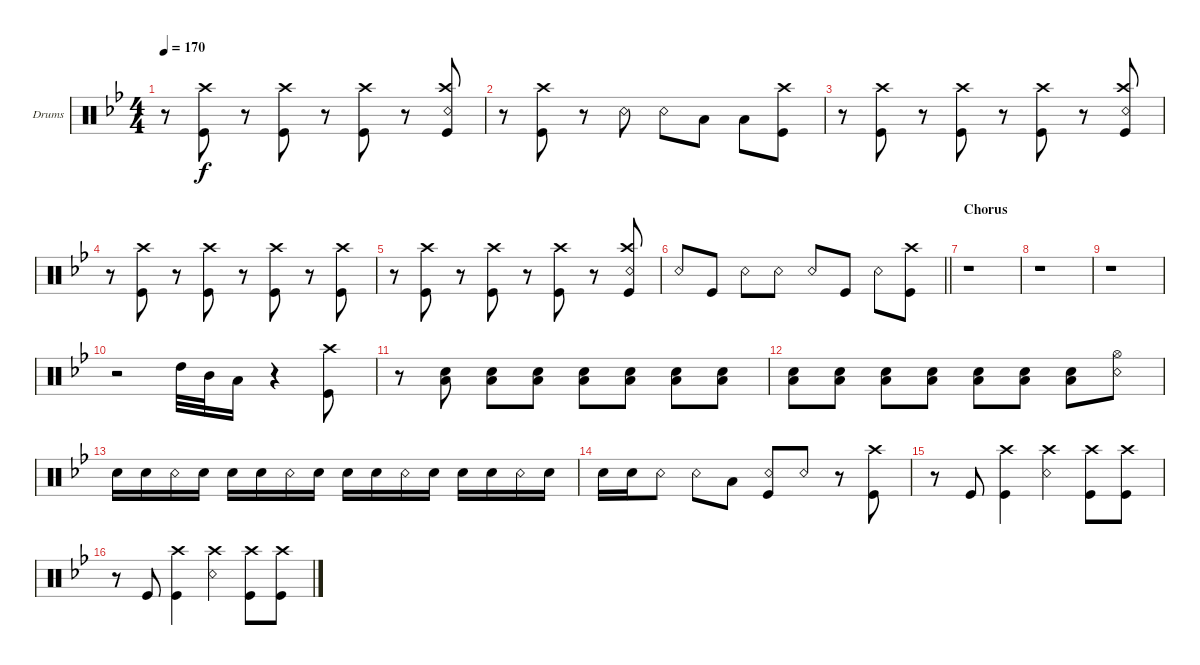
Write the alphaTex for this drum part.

\defaultSystemsLayout 4
\bracketExtendMode groupsimilarinstruments
\firstSystemTrackNameOrientation horizontal
\otherSystemsTrackNameOrientation horizontal
\track ("Drums" "Drums") {instrument percussion}
\staff {score}
\articulation defaults
\ts (4 4)
\tempo 170
\clef neutral
\ks bb
r.8{dy f} ("Kick (hit)" "Crash high (hit)").8 r.8 ("Kick (hit)" "Crash high (hit)").8 r.8 ("Kick (hit)" "Crash high (hit)").8 r.8 ("Kick (hit)" "Crash high (hit)" "Snare (rim shot)").8 |
r.8 ("Kick (hit)" "Crash high (hit)").8 r.8 "Snare (rim shot)".8 "Snare (rim shot)".8 "Low Tom (hit)".8 "Low Tom (hit)".8 ("Kick (hit)" "Crash high (hit)").8 |
r.8 ("Kick (hit)" "Crash high (hit)").8 r.8 ("Kick (hit)" "Crash high (hit)").8 r.8 ("Kick (hit)" "Crash high (hit)").8 r.8 ("Kick (hit)" "Crash high (hit)" "Snare (rim shot)").8 |
r.8 ("Kick (hit)" "Crash high (hit)").8 r.8 ("Kick (hit)" "Crash high (hit)").8 r.8 ("Kick (hit)" "Crash high (hit)").8 r.8 ("Kick (hit)" "Crash high (hit)").8 |
r.8 ("Kick (hit)" "Crash high (hit)").8 r.8 ("Kick (hit)" "Crash high (hit)").8 r.8 ("Kick (hit)" "Crash high (hit)").8 r.8 ("Kick (hit)" "Crash high (hit)" "Snare (rim shot)").8 |
\barLineRight lightlight "Snare (rim shot)".8 "Kick (hit)".8 "Snare (rim shot)".8 "Snare (rim shot)".8 "Snare (rim shot)".8 "Kick (hit)".8 "Snare (rim shot)".8
("Kick (hit)" "Crash high (hit)").8 |
\section ("" "Chorus")
r.1 |
r.1 |
r.1 |
r.2 "High Tom (hit)".32 "Mid Tom (hit)".32 "Low Tom (hit)".16 r.4 ("Kick (hit)" "Crash high (hit)").8 |
r.8 ("Low Tom (hit)" "Snare (hit) 2").8 ("Low Tom (hit)" "Snare (hit) 2").8 ("Low Tom (hit)" "Snare (hit) 2").8 ("Low Tom (hit)" "Snare (hit) 2").8 ("Low Tom (hit)" "Snare (hit) 2").8 ("Low Tom (hit)" "Snare (hit) 2").8 ("Low Tom (hit)" "Snare (hit) 2").8 |
("Low Tom (hit)" "Snare (hit) 2").8 ("Low Tom (hit)" "Snare (hit) 2").8 ("Low Tom (hit)" "Snare (hit) 2").8 ("Low Tom (hit)" "Snare (hit) 2").8 ("Low Tom (hit)" "Snare (hit) 2").8 ("Low Tom (hit)" "Snare (hit) 2").8 ("Low Tom (hit)" "Snare (hit) 2").8 ("Snare (rim shot)" "Hi-Hat (open)").8 |
"Snare (hit) 2".16 "Snare (hit) 2".16 "Snare (rim shot)".16 "Snare (hit) 2".16 "Snare (hit) 2".16 "Snare (hit) 2".16 "Snare (rim shot)".16 "Snare (hit) 2".16 "Snare (hit) 2".16 "Snare (hit) 2".16 "Snare (rim shot)".16 "Snare (hit) 2".16 "Snare (hit) 2".16 "Snare (hit) 2".16 "Snare (rim shot)".16 "Snare (hit) 2".16 |
"Snare (hit) 2".16 "Snare (hit) 2".16 "Snare (rim shot)".8 "Snare (rim shot)".8 "Low Tom (hit)".8 ("Kick (hit)" "Snare (rim shot)").8 "Snare (rim shot)".8 r.8 ("Kick (hit)" "Crash high (hit)").8 |
r.8 "Kick (hit)".8 ("Kick (hit)" "Crash high (hit)").4 ("Snare (rim shot)" "Crash high (hit)").4 ("Kick (hit)" "Crash high (hit)").8 ("Kick (hit)" "Crash high (hit)").8 |
r.8 "Kick (hit)".8 ("Kick (hit)" "Crash high (hit)").4 ("Snare (rim shot)" "Crash high (hit)").4 ("Kick (hit)" "Crash high (hit)").8 ("Kick (hit)" "Crash high (hit)").8
